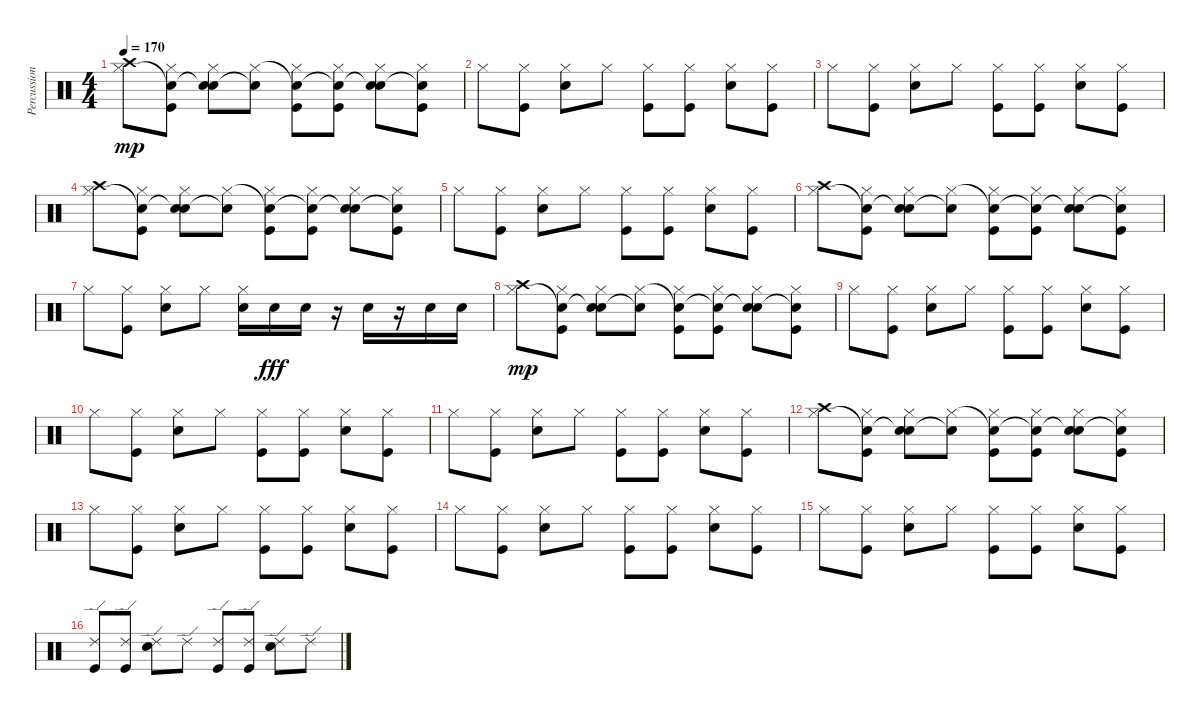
\track ("Percussion" "Percussion") {instrument percussion}
\staff {score}
\articulation defaults
\ts (4 4)
\tempo 170
\clef neutral
\ks c
("Crash high (hit)" "Hi-Hat (closed)").8{dy mp} ("Kick (hit)" "Snare (hit)"{t} "Hi-Hat (closed)").8 ("Electric Snare (hit)" "Snare (hit)"{t} "Hi-Hat (closed)").8 ("Snare (hit)"{t} "Hi-Hat (closed)").8 ("Kick (hit)" "Snare (hit)"{t} "Hi-Hat (closed)").8 ("Kick (hit)" "Snare (hit)"{t} "Hi-Hat (closed)").8 ("Electric Snare (hit)" "Snare (hit)"{t} "Hi-Hat (closed)").8 ("Kick (hit)" "Snare (hit)"{t} "Hi-Hat (closed)").8 |
"Hi-Hat (closed)".8 ("Kick (hit)" "Hi-Hat (closed)").8 ("Electric Snare (hit)" "Hi-Hat (closed)").8 "Hi-Hat (closed)".8 ("Kick (hit)" "Hi-Hat (closed)").8 ("Kick (hit)" "Hi-Hat (closed)").8 ("Electric Snare (hit)" "Hi-Hat (closed)").8 ("Kick (hit)" "Hi-Hat (closed)").8 |
"Hi-Hat (closed)".8 ("Kick (hit)" "Hi-Hat (closed)").8 ("Electric Snare (hit)" "Hi-Hat (closed)").8 "Hi-Hat (closed)".8 ("Kick (hit)" "Hi-Hat (closed)").8 ("Kick (hit)" "Hi-Hat (closed)").8 ("Electric Snare (hit)" "Hi-Hat (closed)").8 ("Kick (hit)" "Hi-Hat (closed)").8 |
("Crash high (hit)" "Hi-Hat (closed)").8 ("Kick (hit)" "Snare (hit)"{t} "Hi-Hat (closed)").8 ("Electric Snare (hit)" "Snare (hit)"{t} "Hi-Hat (closed)").8 ("Snare (hit)"{t} "Hi-Hat (closed)").8 ("Kick (hit)" "Snare (hit)"{t} "Hi-Hat (closed)").8 ("Kick (hit)" "Snare (hit)"{t} "Hi-Hat (closed)").8 ("Electric Snare (hit)" "Snare (hit)"{t} "Hi-Hat (closed)").8 ("Kick (hit)" "Snare (hit)"{t} "Hi-Hat (closed)").8 |
"Hi-Hat (closed)".8 ("Kick (hit)" "Hi-Hat (closed)").8 ("Electric Snare (hit)" "Hi-Hat (closed)").8 "Hi-Hat (closed)".8 ("Kick (hit)" "Hi-Hat (closed)").8 ("Kick (hit)" "Hi-Hat (closed)").8 ("Electric Snare (hit)" "Hi-Hat (closed)").8 ("Kick (hit)" "Hi-Hat (closed)").8 |
("Crash high (hit)" "Hi-Hat (closed)").8 ("Kick (hit)" "Snare (hit)"{t} "Hi-Hat (closed)").8 ("Electric Snare (hit)" "Snare (hit)"{t} "Hi-Hat (closed)").8 ("Snare (hit)"{t} "Hi-Hat (closed)").8 ("Kick (hit)" "Snare (hit)"{t} "Hi-Hat (closed)").8 ("Kick (hit)" "Snare (hit)"{t} "Hi-Hat (closed)").8 ("Electric Snare (hit)" "Snare (hit)"{t} "Hi-Hat (closed)").8 ("Kick (hit)" "Snare (hit)"{t} "Hi-Hat (closed)").8 |
"Hi-Hat (closed)".8 ("Kick (hit)" "Hi-Hat (closed)").8 ("Electric Snare (hit)" "Hi-Hat (closed)").8 "Hi-Hat (closed)".8 ("Electric Snare (hit)" "Hi-Hat (closed)").16 "Electric Snare (hit)".16{dy fff} "Electric Snare (hit)".16 r.16 "Electric Snare (hit)".16 r.16 "Electric Snare (hit)".16 "Electric Snare (hit)".16 |
("Crash high (hit)" "Hi-Hat (closed)").8{dy mp} ("Kick (hit)" "Snare (hit)"{t} "Hi-Hat (closed)").8 ("Electric Snare (hit)" "Snare (hit)"{t} "Hi-Hat (closed)").8 ("Snare (hit)"{t} "Hi-Hat (closed)").8 ("Kick (hit)" "Snare (hit)"{t} "Hi-Hat (closed)").8 ("Kick (hit)" "Snare (hit)"{t} "Hi-Hat (closed)").8 ("Electric Snare (hit)" "Snare (hit)"{t} "Hi-Hat (closed)").8 ("Kick (hit)" "Snare (hit)"{t} "Hi-Hat (closed)").8 |
"Hi-Hat (closed)".8 ("Kick (hit)" "Hi-Hat (closed)").8 ("Electric Snare (hit)" "Hi-Hat (closed)").8 "Hi-Hat (closed)".8 ("Kick (hit)" "Hi-Hat (closed)").8 ("Kick (hit)" "Hi-Hat (closed)").8 ("Electric Snare (hit)" "Hi-Hat (closed)").8 ("Kick (hit)" "Hi-Hat (closed)").8 |
"Hi-Hat (closed)".8 ("Kick (hit)" "Hi-Hat (closed)").8 ("Electric Snare (hit)" "Hi-Hat (closed)").8 "Hi-Hat (closed)".8 ("Kick (hit)" "Hi-Hat (closed)").8 ("Kick (hit)" "Hi-Hat (closed)").8 ("Electric Snare (hit)" "Hi-Hat (closed)").8 ("Kick (hit)" "Hi-Hat (closed)").8 |
"Hi-Hat (closed)".8 ("Kick (hit)" "Hi-Hat (closed)").8 ("Electric Snare (hit)" "Hi-Hat (closed)").8 "Hi-Hat (closed)".8 ("Kick (hit)" "Hi-Hat (closed)").8 ("Kick (hit)" "Hi-Hat (closed)").8 ("Electric Snare (hit)" "Hi-Hat (closed)").8 ("Kick (hit)" "Hi-Hat (closed)").8 |
("Crash high (hit)" "Hi-Hat (closed)").8 ("Kick (hit)" "Snare (hit)"{t} "Hi-Hat (closed)").8 ("Electric Snare (hit)" "Snare (hit)"{t} "Hi-Hat (closed)").8 ("Snare (hit)"{t} "Hi-Hat (closed)").8 ("Kick (hit)" "Snare (hit)"{t} "Hi-Hat (closed)").8 ("Kick (hit)" "Snare (hit)"{t} "Hi-Hat (closed)").8 ("Electric Snare (hit)" "Snare (hit)"{t} "Hi-Hat (closed)").8 ("Kick (hit)" "Snare (hit)"{t} "Hi-Hat (closed)").8 |
"Hi-Hat (closed)".8 ("Kick (hit)" "Hi-Hat (closed)").8 ("Electric Snare (hit)" "Hi-Hat (closed)").8 "Hi-Hat (closed)".8 ("Kick (hit)" "Hi-Hat (closed)").8 ("Kick (hit)" "Hi-Hat (closed)").8 ("Electric Snare (hit)" "Hi-Hat (closed)").8 ("Kick (hit)" "Hi-Hat (closed)").8 |
"Hi-Hat (closed)".8 ("Kick (hit)" "Hi-Hat (closed)").8 ("Electric Snare (hit)" "Hi-Hat (closed)").8 "Hi-Hat (closed)".8 ("Kick (hit)" "Hi-Hat (closed)").8 ("Kick (hit)" "Hi-Hat (closed)").8 ("Electric Snare (hit)" "Hi-Hat (closed)").8 ("Kick (hit)" "Hi-Hat (closed)").8 |
"Hi-Hat (closed)".8 ("Kick (hit)" "Hi-Hat (closed)").8 ("Electric Snare (hit)" "Hi-Hat (closed)").8 "Hi-Hat (closed)".8 ("Kick (hit)" "Hi-Hat (closed)").8 ("Kick (hit)" "Hi-Hat (closed)").8 ("Electric Snare (hit)" "Hi-Hat (closed)").8 ("Kick (hit)" "Hi-Hat (closed)").8 |
("Kick (hit)" "Ride (edge) 2").8 ("Kick (hit)" "Ride (edge) 2").8 ("Electric Snare (hit)" "Ride (edge) 2").8 "Ride (edge) 2".8 ("Kick (hit)" "Ride (edge) 2").8 ("Kick (hit)" "Ride (edge) 2").8 ("Electric Snare (hit)" "Ride (edge) 2").8 "Ride (edge) 2".8
